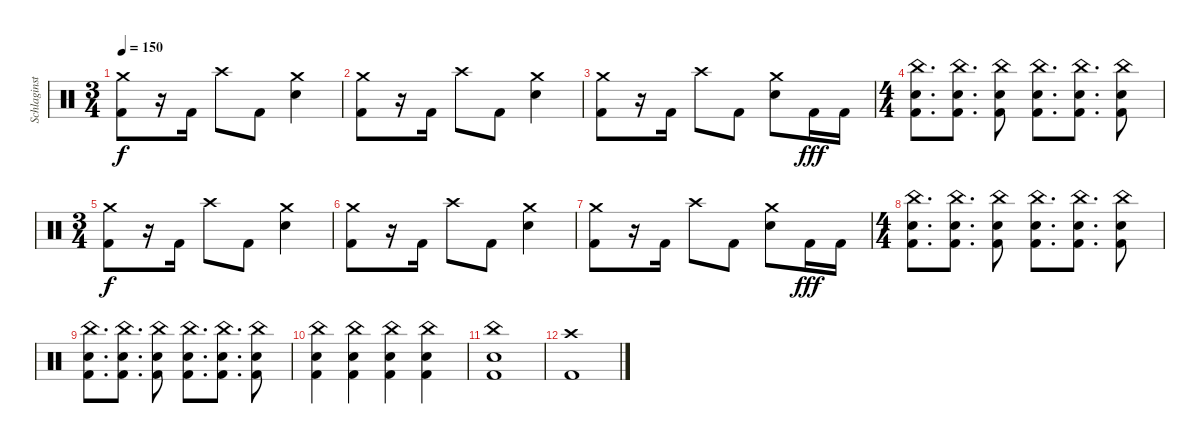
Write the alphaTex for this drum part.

\track ("Schlaginstrumente - Auswahl" "Schlaginst") {instrument percussion}
\staff {score}
\articulation defaults
\ts (3 4)
\tempo 150
\clef neutral
\ks c
("Crash medium (hit)" "Kick (hit) 2").8{dy f} r.16 "Kick (hit) 2".16 "Crash high (hit)".8 "Kick (hit) 2".8 ("Crash medium (hit)" "Electric Snare (hit)").4 |
("Crash medium (hit)" "Kick (hit) 2").8 r.16 "Kick (hit) 2".16 "Crash high (hit)".8 "Kick (hit) 2".8 ("Crash medium (hit)" "Electric Snare (hit)").4 |
("Crash medium (hit)" "Kick (hit) 2").8 r.16 "Kick (hit) 2".16 "Crash high (hit)".8 "Kick (hit) 2".8 ("Crash medium (hit)" "Electric Snare (hit)").8 "Kick (hit) 2".16{dy fff} "Kick (hit) 2".16 |
\ts (4 4)
("China (hit)" "Electric Snare (hit)" "Kick (hit) 2").8{d} ("China (hit)" "Electric Snare (hit)" "Kick (hit) 2").8{d} ("China (hit)" "Electric Snare (hit)" "Kick (hit) 2").8 ("China (hit)" "Electric Snare (hit)" "Kick (hit) 2").8{d} ("China (hit)" "Electric Snare (hit)" "Kick (hit) 2").8{d} ("China (hit)" "Electric Snare (hit)" "Kick (hit) 2").8 |
\ts (3 4)
("Crash medium (hit)" "Kick (hit) 2").8{dy f} r.16 "Kick (hit) 2".16 "Crash high (hit)".8 "Kick (hit) 2".8 ("Crash medium (hit)" "Electric Snare (hit)").4 |
("Crash medium (hit)" "Kick (hit) 2").8 r.16 "Kick (hit) 2".16 "Crash high (hit)".8 "Kick (hit) 2".8 ("Crash medium (hit)" "Electric Snare (hit)").4 |
("Crash medium (hit)" "Kick (hit) 2").8 r.16 "Kick (hit) 2".16 "Crash high (hit)".8 "Kick (hit) 2".8 ("Crash medium (hit)" "Electric Snare (hit)").8 "Kick (hit) 2".16{dy fff} "Kick (hit) 2".16 |
\ts (4 4)
("China (hit)" "Electric Snare (hit)" "Kick (hit) 2").8{d} ("China (hit)" "Electric Snare (hit)" "Kick (hit) 2").8{d} ("China (hit)" "Electric Snare (hit)" "Kick (hit) 2").8 ("China (hit)" "Electric Snare (hit)" "Kick (hit) 2").8{d} ("China (hit)" "Electric Snare (hit)" "Kick (hit) 2").8{d} ("China (hit)" "Electric Snare (hit)" "Kick (hit) 2").8 |
("China (hit)" "Electric Snare (hit)" "Kick (hit) 2").8{d} ("China (hit)" "Electric Snare (hit)" "Kick (hit) 2").8{d} ("China (hit)" "Electric Snare (hit)" "Kick (hit) 2").8 ("China (hit)" "Electric Snare (hit)" "Kick (hit) 2").8{d} ("China (hit)" "Electric Snare (hit)" "Kick (hit) 2").8{d} ("China (hit)" "Electric Snare (hit)" "Kick (hit) 2").8 |
("China (hit)" "Electric Snare (hit)" "Kick (hit) 2").4 ("China (hit)" "Electric Snare (hit)" "Kick (hit) 2").4 ("China (hit)" "Electric Snare (hit)" "Kick (hit) 2").4 ("China (hit)" "Electric Snare (hit)" "Kick (hit) 2").4 |
("China (hit)" "Electric Snare (hit)" "Kick (hit) 2").1 |
("Crash high (hit)" "Kick (hit) 2").1
